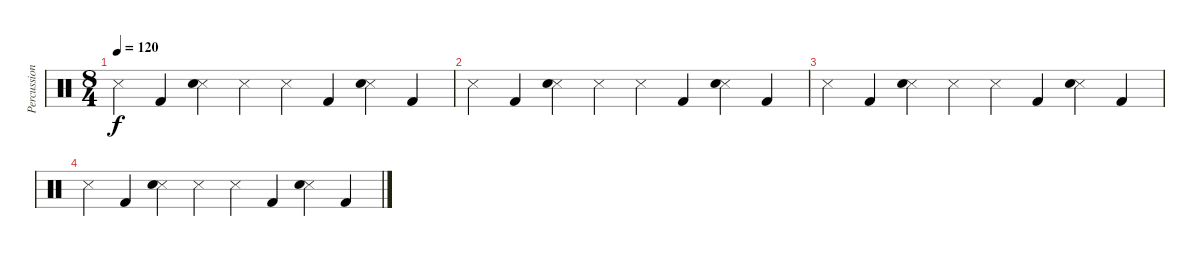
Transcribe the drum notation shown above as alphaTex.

\track ("Percussion" "Percussion") {instrument percussion}
\staff {score}
\articulation defaults
\ts (8 4)
\tempo 120
\clef neutral
\ks c "Metronome (hit)".4{dy f} "Kick (hit) 2".4
("Metronome (hit)" "Snare (hit) 2").4 "Metronome (hit)".4 "Metronome (hit)".4 "Kick (hit) 2".4 ("Metronome (hit)" "Snare (hit) 2").4 "Kick (hit) 2".4 |
"Metronome (hit)".4 "Kick (hit) 2".4 ("Metronome (hit)" "Snare (hit) 2").4 "Metronome (hit)".4 "Metronome (hit)".4 "Kick (hit) 2".4 ("Metronome (hit)" "Snare (hit) 2").4 "Kick (hit) 2".4 |
"Metronome (hit)".4 "Kick (hit) 2".4 ("Metronome (hit)" "Snare (hit) 2").4 "Metronome (hit)".4 "Metronome (hit)".4 "Kick (hit) 2".4 ("Metronome (hit)" "Snare (hit) 2").4 "Kick (hit) 2".4 |
"Metronome (hit)".4 "Kick (hit) 2".4 ("Metronome (hit)" "Snare (hit) 2").4 "Metronome (hit)".4 "Metronome (hit)".4 "Kick (hit) 2".4 ("Metronome (hit)" "Snare (hit) 2").4 "Kick (hit) 2".4
